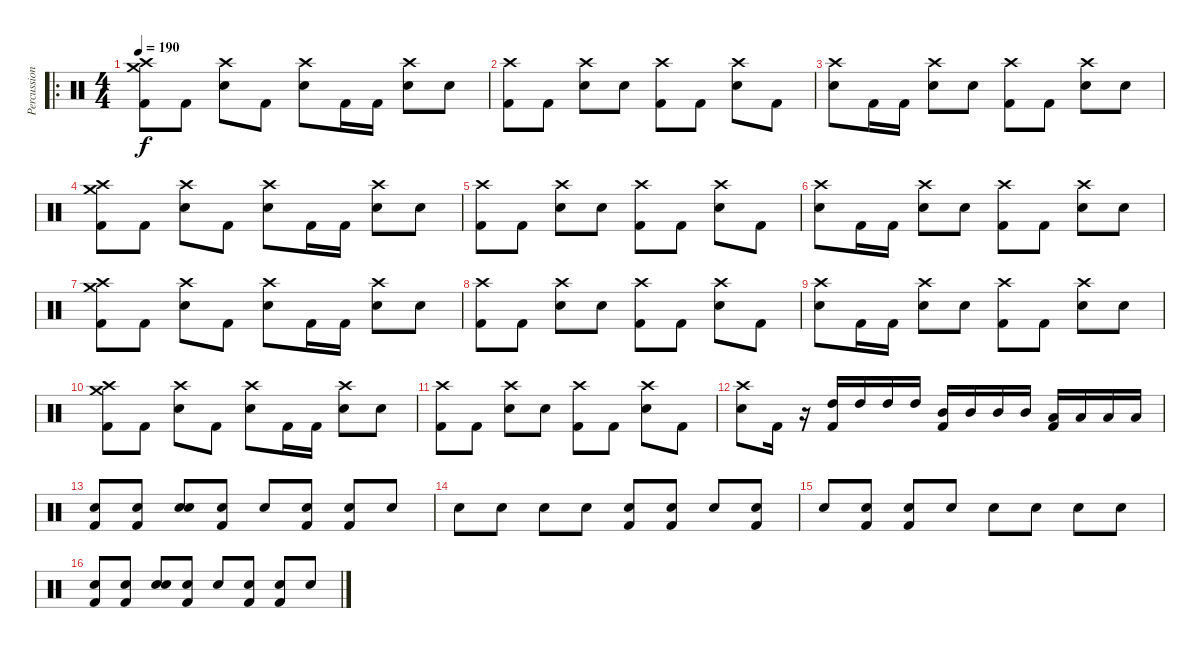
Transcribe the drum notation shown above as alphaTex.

\track ("Percussion" "Percussion") {instrument percussion}
\staff {score}
\articulation defaults
\ro
\ts (4 4)
\tempo 190
\clef neutral
\ks c
("Crash high (hit)" "Crash medium (hit)" "Kick (hit) 2").8{dy f} "Kick (hit) 2".8 ("Crash high (hit)" "Snare (hit)").8 "Kick (hit) 2".8 ("Crash high (hit)" "Snare (hit)").8 "Kick (hit) 2".16 "Kick (hit) 2".16 ("Crash high (hit)" "Snare (hit) 2").8 "Snare (hit)".8 |
("Crash high (hit)" "Kick (hit) 2").8 "Kick (hit) 2".8 ("Crash high (hit)" "Snare (hit) 2").8 "Snare (hit)".8 ("Crash high (hit)" "Kick (hit) 2").8 "Kick (hit) 2".8 ("Crash high (hit)" "Snare (hit)").8 "Kick (hit) 2".8 |
("Crash high (hit)" "Snare (hit)").8 "Kick (hit) 2".16 "Kick (hit) 2".16 ("Crash high (hit)" "Snare (hit) 2").8 "Snare (hit)".8 ("Crash high (hit)" "Kick (hit) 2").8 "Kick (hit) 2".8 ("Crash high (hit)" "Snare (hit) 2").8 "Snare (hit)".8 |
("Crash high (hit)" "Crash medium (hit)" "Kick (hit) 2").8 "Kick (hit) 2".8 ("Crash high (hit)" "Snare (hit)").8 "Kick (hit) 2".8 ("Crash high (hit)" "Snare (hit)").8 "Kick (hit) 2".16 "Kick (hit) 2".16 ("Crash high (hit)" "Snare (hit) 2").8 "Snare (hit)".8 |
("Crash high (hit)" "Kick (hit) 2").8 "Kick (hit) 2".8 ("Crash high (hit)" "Snare (hit) 2").8 "Snare (hit)".8 ("Crash high (hit)" "Kick (hit) 2").8 "Kick (hit) 2".8 ("Crash high (hit)" "Snare (hit)").8 "Kick (hit) 2".8 |
("Crash high (hit)" "Snare (hit)").8 "Kick (hit) 2".16 "Kick (hit) 2".16 ("Crash high (hit)" "Snare (hit) 2").8 "Snare (hit)".8 ("Crash high (hit)" "Kick (hit) 2").8 "Kick (hit) 2".8 ("Crash high (hit)" "Snare (hit) 2").8 "Snare (hit)".8 |
("Crash high (hit)" "Crash medium (hit)" "Kick (hit) 2").8 "Kick (hit) 2".8 ("Crash high (hit)" "Snare (hit)").8 "Kick (hit) 2".8 ("Crash high (hit)" "Snare (hit)").8 "Kick (hit) 2".16 "Kick (hit) 2".16 ("Crash high (hit)" "Snare (hit) 2").8 "Snare (hit)".8 |
("Crash high (hit)" "Kick (hit) 2").8 "Kick (hit) 2".8 ("Crash high (hit)" "Snare (hit) 2").8 "Snare (hit)".8 ("Crash high (hit)" "Kick (hit) 2").8 "Kick (hit) 2".8 ("Crash high (hit)" "Snare (hit)").8 "Kick (hit) 2".8 |
("Crash high (hit)" "Snare (hit)").8 "Kick (hit) 2".16 "Kick (hit) 2".16 ("Crash high (hit)" "Snare (hit) 2").8 "Snare (hit)".8 ("Crash high (hit)" "Kick (hit) 2").8 "Kick (hit) 2".8 ("Crash high (hit)" "Snare (hit) 2").8 "Snare (hit)".8 |
("Crash high (hit)" "Crash medium (hit)" "Kick (hit) 2").8 "Kick (hit) 2".8 ("Crash high (hit)" "Snare (hit)").8 "Kick (hit) 2".8 ("Crash high (hit)" "Snare (hit)").8 "Kick (hit) 2".16 "Kick (hit) 2".16 ("Crash high (hit)" "Snare (hit) 2").8 "Snare (hit)".8 |
("Crash high (hit)" "Kick (hit) 2").8 "Kick (hit) 2".8 ("Crash high (hit)" "Snare (hit) 2").8 "Snare (hit)".8 ("Crash high (hit)" "Kick (hit) 2").8 "Kick (hit) 2".8 ("Crash high (hit)" "Snare (hit)").8 "Kick (hit) 2".8 |
("Crash high (hit)" "Snare (hit)").8 "Kick (hit) 2".16 r.16 ("High Tom (hit)" "Kick (hit) 2").16 "High Tom (hit)".16 "High Tom (hit)".16 "High Tom (hit)".16 ("Mid Tom (hit)" "Kick (hit) 2").16 "Mid Tom (hit)".16 "Mid Tom (hit)".16 "Mid Tom (hit)".16 ("Low Tom (hit)" "Kick (hit) 2").16 "Low Tom (hit)".16 "Low Tom (hit)".16 "Low Tom (hit)".16 |
("Snare (hit) 2" "Kick (hit) 2").8 ("Snare (hit) 2" "Kick (hit) 2").8 ("Snare (hit)" "Snare (hit)").8 ("Snare (hit) 2" "Kick (hit) 2").8 "Snare (hit)".8 ("Snare (hit) 2" "Kick (hit) 2").8 ("Snare (hit) 2" "Kick (hit) 2").8 "Snare (hit)".8 |
"Snare (hit)".8 "Snare (hit)".8 "Snare (hit)".8 "Snare (hit)".8 ("Snare (hit) 2" "Kick (hit) 2").8 ("Snare (hit) 2" "Kick (hit) 2").8 "Snare (hit)".8 ("Snare (hit) 2" "Kick (hit) 2").8 |
"Snare (hit)".8 ("Snare (hit) 2" "Kick (hit) 2").8 ("Snare (hit) 2" "Kick (hit) 2").8 "Snare (hit)".8 "Snare (hit)".8 "Snare (hit)".8 "Snare (hit)".8 "Snare (hit)".8 |
("Snare (hit) 2" "Kick (hit) 2").8 ("Snare (hit) 2" "Kick (hit) 2").8 ("Snare (hit)" "Snare (hit)").8 ("Snare (hit) 2" "Kick (hit) 2").8 "Snare (hit)".8 ("Snare (hit) 2" "Kick (hit) 2").8 ("Snare (hit) 2" "Kick (hit) 2").8 "Snare (hit)".8
